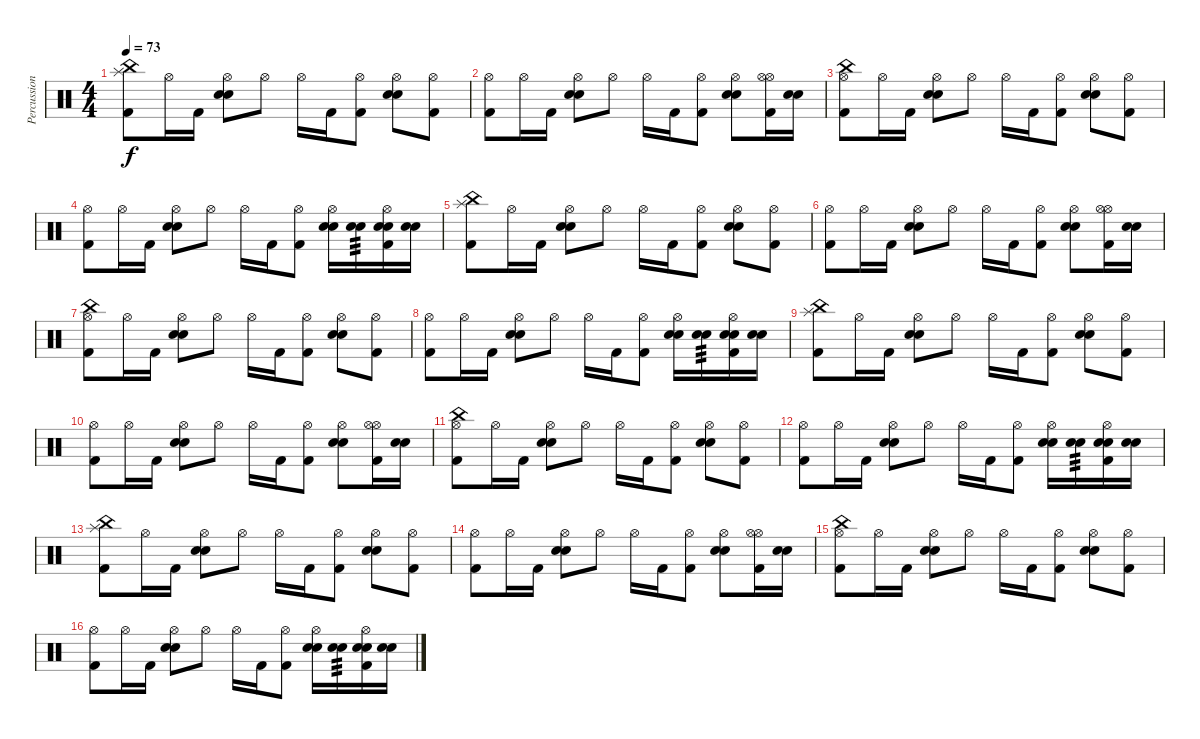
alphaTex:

\track ("Percussion" "Percussion") {instrument percussion}
\staff {score}
\articulation defaults
\ts (4 4)
\tempo 73
\clef neutral
\ks c
("Kick (hit) 2" "China (hit)" "Splash (hit)").8{dy f} "Hi-Hat (open)".16 "Kick (hit) 2".16 ("Electric Snare (hit)" "Electric Snare (hit)" "Hi-Hat (open)").8 "Hi-Hat (open)".8 "Hi-Hat (open)".16 "Kick (hit) 2".16 ("Kick (hit) 2" "Hi-Hat (open)").8 ("Electric Snare (hit)" "Electric Snare (hit)" "Hi-Hat (open)").8 ("Kick (hit) 2" "Hi-Hat (open)").8 |
("Kick (hit) 2" "Hi-Hat (open)").8 "Hi-Hat (open)".16 "Kick (hit) 2".16 ("Electric Snare (hit)" "Electric Snare (hit)" "Hi-Hat (open)").8 "Hi-Hat (open)".8 "Hi-Hat (open)".16 "Kick (hit) 2".16 ("Kick (hit) 2" "Hi-Hat (open)").8 ("Electric Snare (hit)" "Electric Snare (hit)" "Hi-Hat (open)").8 ("Kick (hit) 2" "Hi-Hat (open)" "Hi-Hat (open)").16 ("Electric Snare (hit)" "Electric Snare (hit)").16 |
("Kick (hit) 2" "China (hit)" "Hi-Hat (open)").8 "Hi-Hat (open)".16 "Kick (hit) 2".16 ("Electric Snare (hit)" "Electric Snare (hit)" "Hi-Hat (open)").8 "Hi-Hat (open)".8 "Hi-Hat (open)".16 "Kick (hit) 2".16 ("Kick (hit) 2" "Hi-Hat (open)").8 ("Electric Snare (hit)" "Electric Snare (hit)" "Hi-Hat (open)").8 ("Kick (hit) 2" "Hi-Hat (open)").8 |
("Kick (hit) 2" "Hi-Hat (open)").8 "Hi-Hat (open)".16 "Kick (hit) 2".16 ("Electric Snare (hit)" "Electric Snare (hit)" "Hi-Hat (open)").8 "Hi-Hat (open)".8 "Hi-Hat (open)".16 "Kick (hit) 2".16 ("Kick (hit) 2" "Hi-Hat (open)").8 ("Electric Snare (hit)" "Electric Snare (hit)" "Hi-Hat (open)").16 ("Electric Snare (hit)" "Electric Snare (hit)").16{tp 3} ("Kick (hit) 2" "Electric Snare (hit)" "Hi-Hat (open)" "Electric Snare (hit)").16 ("Electric Snare (hit)" "Electric Snare (hit)").16 |
("Kick (hit) 2" "China (hit)" "Splash (hit)").8 "Hi-Hat (open)".16 "Kick (hit) 2".16 ("Electric Snare (hit)" "Electric Snare (hit)" "Hi-Hat (open)").8 "Hi-Hat (open)".8 "Hi-Hat (open)".16 "Kick (hit) 2".16 ("Kick (hit) 2" "Hi-Hat (open)").8 ("Electric Snare (hit)" "Electric Snare (hit)" "Hi-Hat (open)").8 ("Kick (hit) 2" "Hi-Hat (open)").8 |
("Kick (hit) 2" "Hi-Hat (open)").8 "Hi-Hat (open)".16 "Kick (hit) 2".16 ("Electric Snare (hit)" "Electric Snare (hit)" "Hi-Hat (open)").8 "Hi-Hat (open)".8 "Hi-Hat (open)".16 "Kick (hit) 2".16 ("Kick (hit) 2" "Hi-Hat (open)").8 ("Electric Snare (hit)" "Electric Snare (hit)" "Hi-Hat (open)").8 ("Kick (hit) 2" "Hi-Hat (open)" "Hi-Hat (open)").16 ("Electric Snare (hit)" "Electric Snare (hit)").16 |
("Kick (hit) 2" "China (hit)" "Hi-Hat (open)").8 "Hi-Hat (open)".16 "Kick (hit) 2".16 ("Electric Snare (hit)" "Electric Snare (hit)" "Hi-Hat (open)").8 "Hi-Hat (open)".8 "Hi-Hat (open)".16 "Kick (hit) 2".16 ("Kick (hit) 2" "Hi-Hat (open)").8 ("Electric Snare (hit)" "Electric Snare (hit)" "Hi-Hat (open)").8 ("Kick (hit) 2" "Hi-Hat (open)").8 |
("Kick (hit) 2" "Hi-Hat (open)").8 "Hi-Hat (open)".16 "Kick (hit) 2".16 ("Electric Snare (hit)" "Electric Snare (hit)" "Hi-Hat (open)").8 "Hi-Hat (open)".8 "Hi-Hat (open)".16 "Kick (hit) 2".16 ("Kick (hit) 2" "Hi-Hat (open)").8 ("Electric Snare (hit)" "Electric Snare (hit)" "Hi-Hat (open)").16 ("Electric Snare (hit)" "Electric Snare (hit)").16{tp 3} ("Kick (hit) 2" "Electric Snare (hit)" "Hi-Hat (open)" "Electric Snare (hit)").16 ("Electric Snare (hit)" "Electric Snare (hit)").16 |
("Kick (hit) 2" "China (hit)" "Splash (hit)").8 "Hi-Hat (open)".16 "Kick (hit) 2".16 ("Electric Snare (hit)" "Electric Snare (hit)" "Hi-Hat (open)").8 "Hi-Hat (open)".8 "Hi-Hat (open)".16 "Kick (hit) 2".16 ("Kick (hit) 2" "Hi-Hat (open)").8 ("Electric Snare (hit)" "Electric Snare (hit)" "Hi-Hat (open)").8 ("Kick (hit) 2" "Hi-Hat (open)").8 |
("Kick (hit) 2" "Hi-Hat (open)").8 "Hi-Hat (open)".16 "Kick (hit) 2".16 ("Electric Snare (hit)" "Electric Snare (hit)" "Hi-Hat (open)").8 "Hi-Hat (open)".8 "Hi-Hat (open)".16 "Kick (hit) 2".16 ("Kick (hit) 2" "Hi-Hat (open)").8 ("Electric Snare (hit)" "Electric Snare (hit)" "Hi-Hat (open)").8 ("Kick (hit) 2" "Hi-Hat (open)" "Hi-Hat (open)").16 ("Electric Snare (hit)" "Electric Snare (hit)").16 |
("Kick (hit) 2" "China (hit)" "Hi-Hat (open)").8 "Hi-Hat (open)".16 "Kick (hit) 2".16 ("Electric Snare (hit)" "Electric Snare (hit)" "Hi-Hat (open)").8 "Hi-Hat (open)".8 "Hi-Hat (open)".16 "Kick (hit) 2".16 ("Kick (hit) 2" "Hi-Hat (open)").8 ("Electric Snare (hit)" "Electric Snare (hit)" "Hi-Hat (open)").8 ("Kick (hit) 2" "Hi-Hat (open)").8 |
("Kick (hit) 2" "Hi-Hat (open)").8 "Hi-Hat (open)".16 "Kick (hit) 2".16 ("Electric Snare (hit)" "Electric Snare (hit)" "Hi-Hat (open)").8 "Hi-Hat (open)".8 "Hi-Hat (open)".16 "Kick (hit) 2".16 ("Kick (hit) 2" "Hi-Hat (open)").8 ("Electric Snare (hit)" "Electric Snare (hit)" "Hi-Hat (open)").16 ("Electric Snare (hit)" "Electric Snare (hit)").16{tp 3} ("Kick (hit) 2" "Electric Snare (hit)" "Hi-Hat (open)" "Electric Snare (hit)").16 ("Electric Snare (hit)" "Electric Snare (hit)").16 |
("Kick (hit) 2" "China (hit)" "Splash (hit)").8 "Hi-Hat (open)".16 "Kick (hit) 2".16 ("Electric Snare (hit)" "Electric Snare (hit)" "Hi-Hat (open)").8 "Hi-Hat (open)".8 "Hi-Hat (open)".16 "Kick (hit) 2".16 ("Kick (hit) 2" "Hi-Hat (open)").8 ("Electric Snare (hit)" "Electric Snare (hit)" "Hi-Hat (open)").8 ("Kick (hit) 2" "Hi-Hat (open)").8 |
("Kick (hit) 2" "Hi-Hat (open)").8 "Hi-Hat (open)".16 "Kick (hit) 2".16 ("Electric Snare (hit)" "Electric Snare (hit)" "Hi-Hat (open)").8 "Hi-Hat (open)".8 "Hi-Hat (open)".16 "Kick (hit) 2".16 ("Kick (hit) 2" "Hi-Hat (open)").8 ("Electric Snare (hit)" "Electric Snare (hit)" "Hi-Hat (open)").8 ("Kick (hit) 2" "Hi-Hat (open)" "Hi-Hat (open)").16 ("Electric Snare (hit)" "Electric Snare (hit)").16 |
("Kick (hit) 2" "China (hit)" "Hi-Hat (open)").8 "Hi-Hat (open)".16 "Kick (hit) 2".16 ("Electric Snare (hit)" "Electric Snare (hit)" "Hi-Hat (open)").8 "Hi-Hat (open)".8 "Hi-Hat (open)".16 "Kick (hit) 2".16 ("Kick (hit) 2" "Hi-Hat (open)").8 ("Electric Snare (hit)" "Electric Snare (hit)" "Hi-Hat (open)").8 ("Kick (hit) 2" "Hi-Hat (open)").8 |
("Kick (hit) 2" "Hi-Hat (open)").8 "Hi-Hat (open)".16 "Kick (hit) 2".16 ("Electric Snare (hit)" "Electric Snare (hit)" "Hi-Hat (open)").8 "Hi-Hat (open)".8 "Hi-Hat (open)".16 "Kick (hit) 2".16 ("Kick (hit) 2" "Hi-Hat (open)").8 ("Electric Snare (hit)" "Electric Snare (hit)" "Hi-Hat (open)").16 ("Electric Snare (hit)" "Electric Snare (hit)").16{tp 3} ("Kick (hit) 2" "Electric Snare (hit)" "Hi-Hat (open)" "Electric Snare (hit)").16 ("Electric Snare (hit)" "Electric Snare (hit)").16
